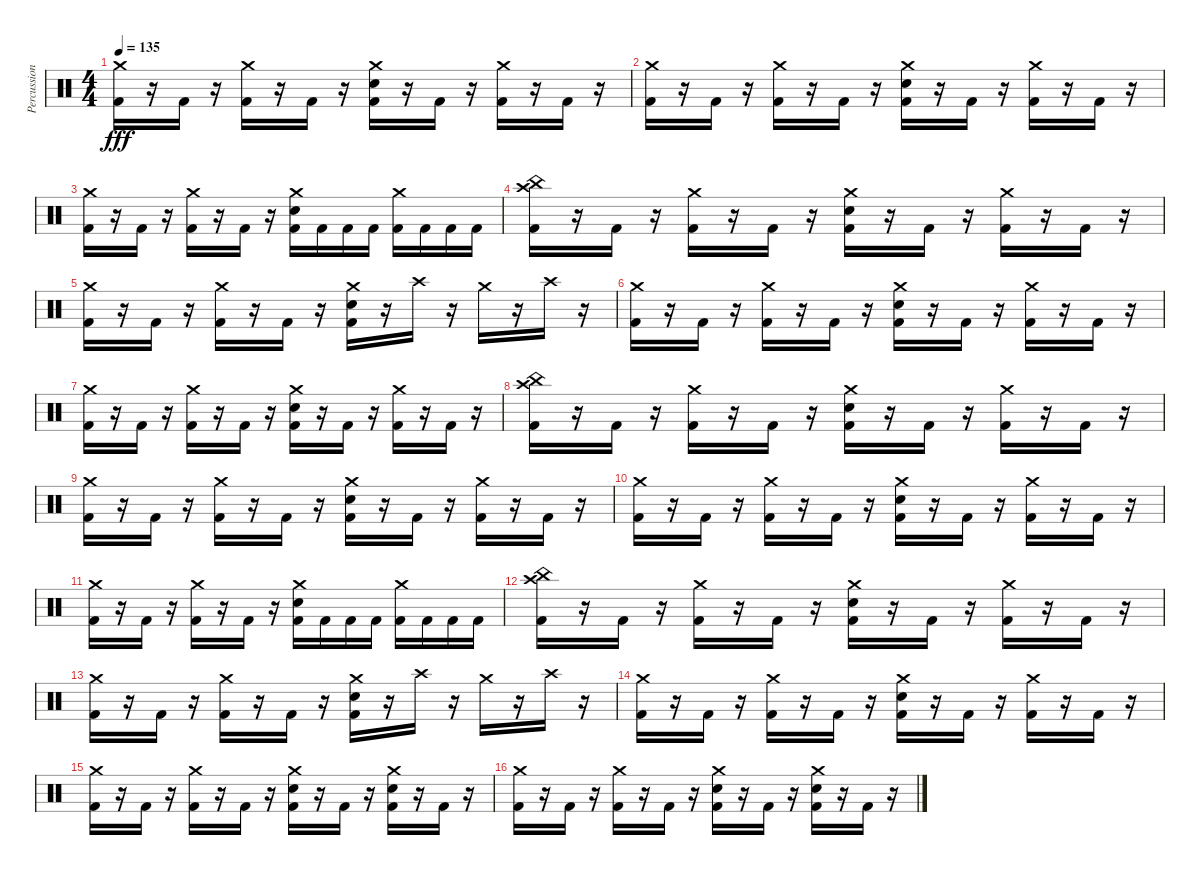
\track ("Percussion" "Percussion") {instrument percussion}
\staff {score}
\articulation defaults
\ts (4 4)
\tempo 135
\clef neutral
\ks c
("Crash medium (hit)" "Kick (hit) 2").16{dy fff} r.16 "Kick (hit) 2".16 r.16 ("Crash medium (hit)" "Kick (hit) 2").16 r.16 "Kick (hit) 2".16 r.16 ("Crash medium (hit)" "Snare (hit) 2" "Kick (hit) 2").16 r.16 "Kick (hit) 2".16 r.16 ("Crash medium (hit)" "Kick (hit) 2").16 r.16 "Kick (hit) 2".16 r.16 |
("Crash medium (hit)" "Kick (hit) 2").16 r.16 "Kick (hit) 2".16 r.16 ("Crash medium (hit)" "Kick (hit) 2").16 r.16 "Kick (hit) 2".16 r.16 ("Crash medium (hit)" "Snare (hit) 2" "Kick (hit) 2").16 r.16 "Kick (hit) 2".16 r.16 ("Crash medium (hit)" "Kick (hit) 2").16 r.16 "Kick (hit) 2".16 r.16 |
("Crash medium (hit)" "Kick (hit) 2").16 r.16 "Kick (hit) 2".16 r.16 ("Crash medium (hit)" "Kick (hit) 2").16 r.16 "Kick (hit) 2".16 r.16 ("Crash medium (hit)" "Snare (hit) 2" "Kick (hit) 2").16 "Kick (hit) 2".16 "Kick (hit) 2".16 "Kick (hit) 2".16 ("Crash medium (hit)" "Kick (hit) 2").16 "Kick (hit) 2".16 "Kick (hit) 2".16 "Kick (hit) 2".16 |
("Crash high (hit)" "China (hit)" "Kick (hit) 2").16 r.16 "Kick (hit) 2".16 r.16 ("Crash medium (hit)" "Kick (hit) 2").16 r.16 "Kick (hit) 2".16 r.16 ("Crash medium (hit)" "Snare (hit) 2" "Kick (hit) 2").16 r.16 "Kick (hit) 2".16 r.16 ("Crash medium (hit)" "Kick (hit) 2").16 r.16 "Kick (hit) 2".16 r.16 |
("Crash medium (hit)" "Kick (hit) 2").16 r.16 "Kick (hit) 2".16 r.16 ("Crash medium (hit)" "Kick (hit) 2").16 r.16 "Kick (hit) 2".16 r.16 ("Crash medium (hit)" "Snare (hit) 2" "Kick (hit) 2").16 r.16 "Crash high (hit)".16 r.16 "Crash medium (hit)".16 r.16 "Crash high (hit)".16 r.16 |
("Crash medium (hit)" "Kick (hit) 2").16 r.16 "Kick (hit) 2".16 r.16 ("Crash medium (hit)" "Kick (hit) 2").16 r.16 "Kick (hit) 2".16 r.16 ("Crash medium (hit)" "Snare (hit) 2" "Kick (hit) 2").16 r.16 "Kick (hit) 2".16 r.16 ("Crash medium (hit)" "Kick (hit) 2").16 r.16 "Kick (hit) 2".16 r.16 |
("Crash medium (hit)" "Kick (hit) 2").16 r.16 "Kick (hit) 2".16 r.16 ("Crash medium (hit)" "Kick (hit) 2").16 r.16 "Kick (hit) 2".16 r.16 ("Crash medium (hit)" "Snare (hit) 2" "Kick (hit) 2").16 r.16 "Kick (hit) 2".16 r.16 ("Crash medium (hit)" "Kick (hit) 2").16 r.16 "Kick (hit) 2".16 r.16 |
("Crash high (hit)" "China (hit)" "Kick (hit) 2").16 r.16 "Kick (hit) 2".16 r.16 ("Crash medium (hit)" "Kick (hit) 2").16 r.16 "Kick (hit) 2".16 r.16 ("Crash medium (hit)" "Snare (hit) 2" "Kick (hit) 2").16 r.16 "Kick (hit) 2".16 r.16 ("Crash medium (hit)" "Kick (hit) 2").16 r.16 "Kick (hit) 2".16 r.16 |
("Crash medium (hit)" "Kick (hit) 2").16 r.16 "Kick (hit) 2".16 r.16 ("Crash medium (hit)" "Kick (hit) 2").16 r.16 "Kick (hit) 2".16 r.16 ("Crash medium (hit)" "Snare (hit) 2" "Kick (hit) 2").16 r.16 "Kick (hit) 2".16 r.16 ("Crash medium (hit)" "Kick (hit) 2").16 r.16 "Kick (hit) 2".16 r.16 |
("Crash medium (hit)" "Kick (hit) 2").16 r.16 "Kick (hit) 2".16 r.16 ("Crash medium (hit)" "Kick (hit) 2").16 r.16 "Kick (hit) 2".16 r.16 ("Crash medium (hit)" "Snare (hit) 2" "Kick (hit) 2").16 r.16 "Kick (hit) 2".16 r.16 ("Crash medium (hit)" "Kick (hit) 2").16 r.16 "Kick (hit) 2".16 r.16 |
("Crash medium (hit)" "Kick (hit) 2").16 r.16 "Kick (hit) 2".16 r.16 ("Crash medium (hit)" "Kick (hit) 2").16 r.16 "Kick (hit) 2".16 r.16 ("Crash medium (hit)" "Snare (hit) 2" "Kick (hit) 2").16 "Kick (hit) 2".16 "Kick (hit) 2".16 "Kick (hit) 2".16 ("Crash medium (hit)" "Kick (hit) 2").16 "Kick (hit) 2".16 "Kick (hit) 2".16 "Kick (hit) 2".16 |
("Crash high (hit)" "China (hit)" "Kick (hit) 2").16 r.16 "Kick (hit) 2".16 r.16 ("Crash medium (hit)" "Kick (hit) 2").16 r.16 "Kick (hit) 2".16 r.16 ("Crash medium (hit)" "Snare (hit) 2" "Kick (hit) 2").16 r.16 "Kick (hit) 2".16 r.16 ("Crash medium (hit)" "Kick (hit) 2").16 r.16 "Kick (hit) 2".16 r.16 |
("Crash medium (hit)" "Kick (hit) 2").16 r.16 "Kick (hit) 2".16 r.16 ("Crash medium (hit)" "Kick (hit) 2").16 r.16 "Kick (hit) 2".16 r.16 ("Crash medium (hit)" "Snare (hit) 2" "Kick (hit) 2").16 r.16 "Crash high (hit)".16 r.16 "Crash medium (hit)".16 r.16 "Crash high (hit)".16 r.16 |
("Crash medium (hit)" "Kick (hit) 2").16 r.16 "Kick (hit) 2".16 r.16 ("Crash medium (hit)" "Kick (hit) 2").16 r.16 "Kick (hit) 2".16 r.16 ("Crash medium (hit)" "Snare (hit) 2" "Kick (hit) 2").16 r.16 "Kick (hit) 2".16 r.16 ("Crash medium (hit)" "Kick (hit) 2").16 r.16 "Kick (hit) 2".16 r.16 |
("Crash medium (hit)" "Kick (hit) 2").16 r.16 "Kick (hit) 2".16 r.16 ("Crash medium (hit)" "Kick (hit) 2").16 r.16 "Kick (hit) 2".16 r.16 ("Crash medium (hit)" "Snare (hit) 2" "Kick (hit) 2").16 r.16 "Kick (hit) 2".16 r.16 ("Crash medium (hit)" "Snare (hit) 2" "Kick (hit) 2").16 r.16 "Kick (hit) 2".16 r.16 |
("Crash medium (hit)" "Kick (hit) 2").16 r.16 "Kick (hit) 2".16 r.16 ("Crash medium (hit)" "Kick (hit) 2").16 r.16 "Kick (hit) 2".16 r.16 ("Crash medium (hit)" "Snare (hit) 2" "Kick (hit) 2").16 r.16 "Kick (hit) 2".16 r.16 ("Crash medium (hit)" "Snare (hit) 2" "Kick (hit) 2").16 r.16 "Kick (hit) 2".16 r.16
